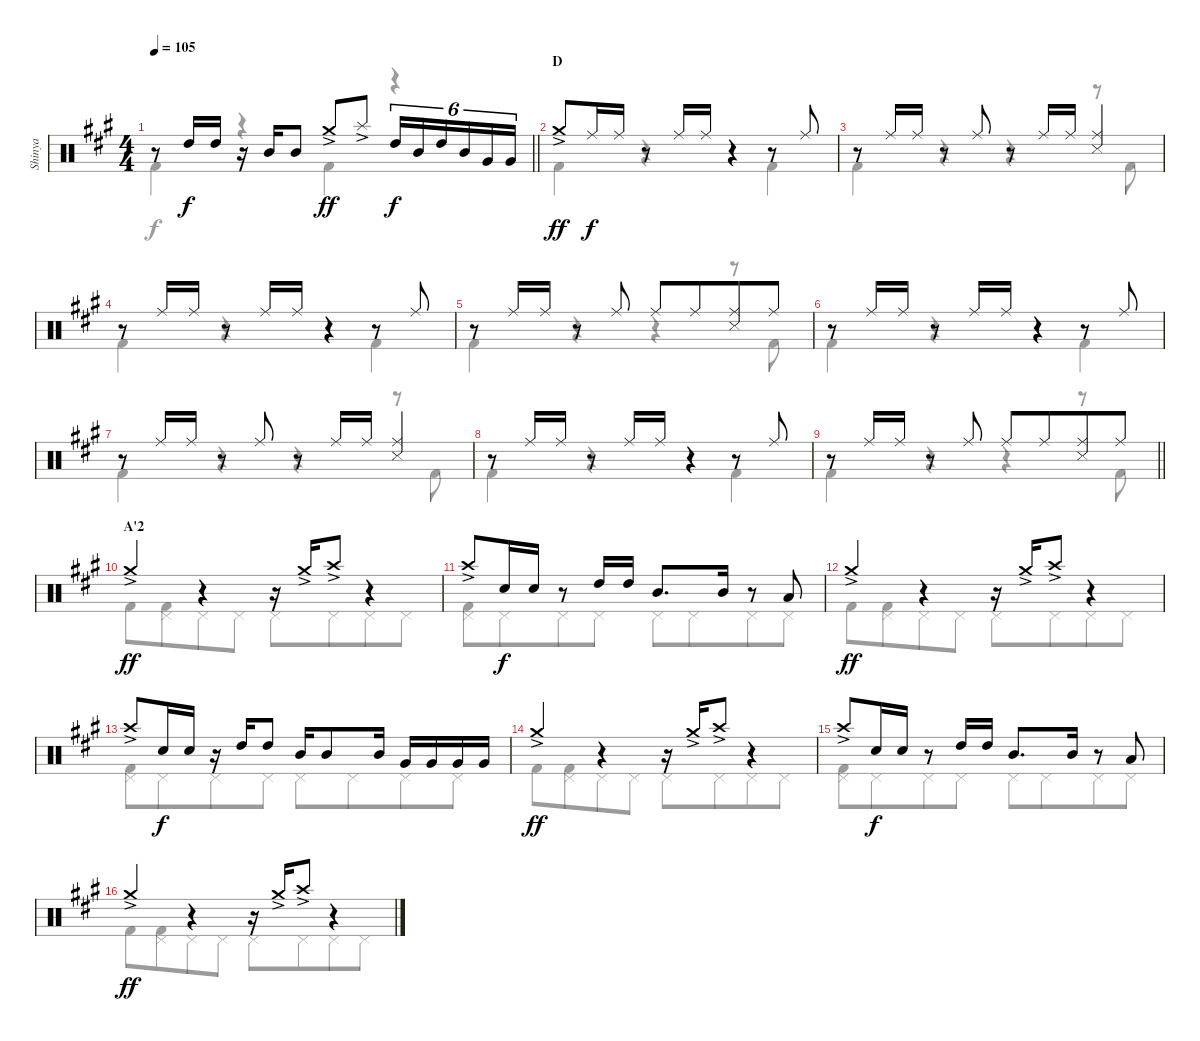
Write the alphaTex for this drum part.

\track ("Shinya" "Shinya") {instrument percussion}
\staff {score}
\articulation defaults
\voice
\ts (4 4)
\tempo 105
\clef neutral
\barLineRight lightlight
\ks f#minor
r.8{dy f} "High Tom (hit)".16 "High Tom (hit)".16 r.16 "Mid Tom (hit)".16 "Mid Tom (hit)".8 "Crash medium (hit)"{ac}.8{dy ff} "Splash (hit)"{ac}.8 "High Tom (hit)".16{tu (6 4) dy f} "Mid Tom (hit)".16{tu (6 4)} "High Tom (hit)".16{tu (6 4)} "Mid Tom (hit)".16{tu (6 4)} "Very Low Tom (hit)".16{tu (6 4)} "Very Low Tom (hit)".16{tu (6 4)} |
\section ("" "D")
"Crash medium (hit)"{ac}.8{dy ff} "Ride (middle)".16{dy f} "Ride (middle)".16 r.8 "Ride (middle)".16 "Ride (middle)".16 r.4 r.8 "Ride (middle)".8 |
r.8 "Ride (middle)".16 "Ride (middle)".16 r.8 "Ride (middle)".8 r.8 "Ride (middle)".16 "Ride (middle)".16 ("Ride (middle)" "Snare (side stick) 3").4 |
r.8 "Ride (middle)".16 "Ride (middle)".16 r.8 "Ride (middle)".16 "Ride (middle)".16 r.4 r.8 "Ride (middle)".8 |
r.8 "Ride (middle)".16 "Ride (middle)".16 r.8 "Ride (middle)".8 "Ride (middle)".8 "Ride (middle)".8{beam merge} ("Ride (middle)" "Snare (side stick) 3").8 "Ride (middle)".8 |
r.8 "Ride (middle)".16 "Ride (middle)".16 r.8 "Ride (middle)".16 "Ride (middle)".16 r.4 r.8 "Ride (middle)".8 |
r.8 "Ride (middle)".16 "Ride (middle)".16 r.8 "Ride (middle)".8 r.8 "Ride (middle)".16 "Ride (middle)".16 ("Ride (middle)" "Snare (side stick) 3").4 |
r.8 "Ride (middle)".16 "Ride (middle)".16 r.8 "Ride (middle)".16 "Ride (middle)".16 r.4 r.8 "Ride (middle)".8 |
\barLineRight lightlight
r.8 "Ride (middle)".16 "Ride (middle)".16 r.8 "Ride (middle)".8 "Ride (middle)".8 "Ride (middle)".8{beam merge} ("Ride (middle)" "Snare (side stick) 3").8 "Ride (middle)".8 |
\section ("" "A'2")
"Crash medium (hit)"{ac}.4{dy ff} r.4 r.16 "Crash medium (hit)"{ac}.16 "Crash high (hit)"{ac}.8 r.4 |
"Crash high (hit)"{ac}.8 "Snare (hit) 2".16{dy f} "Snare (hit) 2".16 r.8 "High Tom (hit)".16 "High Tom (hit)".16 "Mid Tom (hit)".8{d} "Mid Tom (hit)".16 r.8 "Low Floor Tom (hit)".8 |
"Crash medium (hit)"{ac}.4{dy ff} r.4 r.16 "Crash medium (hit)"{ac}.16 "Crash high (hit)"{ac}.8 r.4 |
"Crash high (hit)"{ac}.8 "Snare (hit) 2".16{dy f} "Snare (hit) 2".16 r.16 "High Tom (hit)".16 "High Tom (hit)".8 "Mid Tom (hit)".16 "Mid Tom (hit)".8 "Mid Tom (hit)".16 "Very Low Tom (hit)".16 "Very Low Tom (hit)".16 "Very Low Tom (hit)".16 "Very Low Tom (hit)".16 |
"Crash medium (hit)"{ac}.4{dy ff} r.4 r.16 "Crash medium (hit)"{ac}.16 "Crash high (hit)"{ac}.8 r.4 |
"Crash high (hit)"{ac}.8 "Snare (hit) 2".16{dy f} "Snare (hit) 2".16 r.8 "High Tom (hit)".16 "High Tom (hit)".16 "Mid Tom (hit)".8{d} "Mid Tom (hit)".16 r.8 "Low Floor Tom (hit)".8 |
"Crash medium (hit)"{ac}.4{dy ff} r.4 r.16 "Crash medium (hit)"{ac}.16 "Crash high (hit)"{ac}.8 r.4
\voice
\clef neutral
\ottava regular
\simile none
\barLineRight lightlight
\ks f#minor "Kick (hit) 2".4{dy f}
r.4 "Kick (hit) 2".4 r.4 |
"Kick (hit) 2".4 r.4 r.4 "Kick (hit) 2".4 |
"Kick (hit) 2".4 r.4 r.4 r.8 "Kick (hit) 2".8 |
"Kick (hit) 2".4 r.4 r.4 "Kick (hit) 2".4 |
"Kick (hit) 2".4 r.4 r.4 r.8 "Kick (hit) 2".8 |
"Kick (hit) 2".4 r.4 r.4 "Kick (hit) 2".4 |
"Kick (hit) 2".4 r.4 r.4 r.8 "Kick (hit) 2".8 |
"Kick (hit) 2".4 r.4 r.4 "Kick (hit) 2".4 |
\barLineRight lightlight "Kick (hit) 2".4
r.4 r.4 r.8 "Kick (hit) 2".8 |
"Kick (hit) 2".8 ("Pedal Hi-Hat (hit)" "Kick (hit) 2").8{beam merge} "Pedal Hi-Hat (hit)".8 "Pedal Hi-Hat (hit)".8 "Pedal Hi-Hat (hit)".8 "Pedal Hi-Hat (hit)".8{beam merge} "Pedal Hi-Hat (hit)".8 "Pedal Hi-Hat (hit)".8 |
("Pedal Hi-Hat (hit)" "Kick (hit) 2").8 "Pedal Hi-Hat (hit)".8{beam merge} "Pedal Hi-Hat (hit)".8 "Pedal Hi-Hat (hit)".8 "Pedal Hi-Hat (hit)".8 "Pedal Hi-Hat (hit)".8{beam merge} "Pedal Hi-Hat (hit)".8 "Pedal Hi-Hat (hit)".8 |
"Kick (hit) 2".8 ("Pedal Hi-Hat (hit)" "Kick (hit) 2").8{beam merge} "Pedal Hi-Hat (hit)".8 "Pedal Hi-Hat (hit)".8 "Pedal Hi-Hat (hit)".8 "Pedal Hi-Hat (hit)".8{beam merge} "Pedal Hi-Hat (hit)".8 "Pedal Hi-Hat (hit)".8 |
("Pedal Hi-Hat (hit)" "Kick (hit) 2").8 "Pedal Hi-Hat (hit)".8{beam merge} "Pedal Hi-Hat (hit)".8 "Pedal Hi-Hat (hit)".8 "Pedal Hi-Hat (hit)".8 "Pedal Hi-Hat (hit)".8{beam merge} "Pedal Hi-Hat (hit)".8 "Pedal Hi-Hat (hit)".8 |
"Kick (hit) 2".8 ("Pedal Hi-Hat (hit)" "Kick (hit) 2").8{beam merge} "Pedal Hi-Hat (hit)".8 "Pedal Hi-Hat (hit)".8 "Pedal Hi-Hat (hit)".8 "Pedal Hi-Hat (hit)".8{beam merge} "Pedal Hi-Hat (hit)".8 "Pedal Hi-Hat (hit)".8 |
("Pedal Hi-Hat (hit)" "Kick (hit) 2").8 "Pedal Hi-Hat (hit)".8{beam merge} "Pedal Hi-Hat (hit)".8 "Pedal Hi-Hat (hit)".8 "Pedal Hi-Hat (hit)".8 "Pedal Hi-Hat (hit)".8{beam merge} "Pedal Hi-Hat (hit)".8 "Pedal Hi-Hat (hit)".8 |
"Kick (hit) 2".8 ("Pedal Hi-Hat (hit)" "Kick (hit) 2").8{beam merge} "Pedal Hi-Hat (hit)".8 "Pedal Hi-Hat (hit)".8 "Pedal Hi-Hat (hit)".8 "Pedal Hi-Hat (hit)".8{beam merge} "Pedal Hi-Hat (hit)".8 "Pedal Hi-Hat (hit)".8
